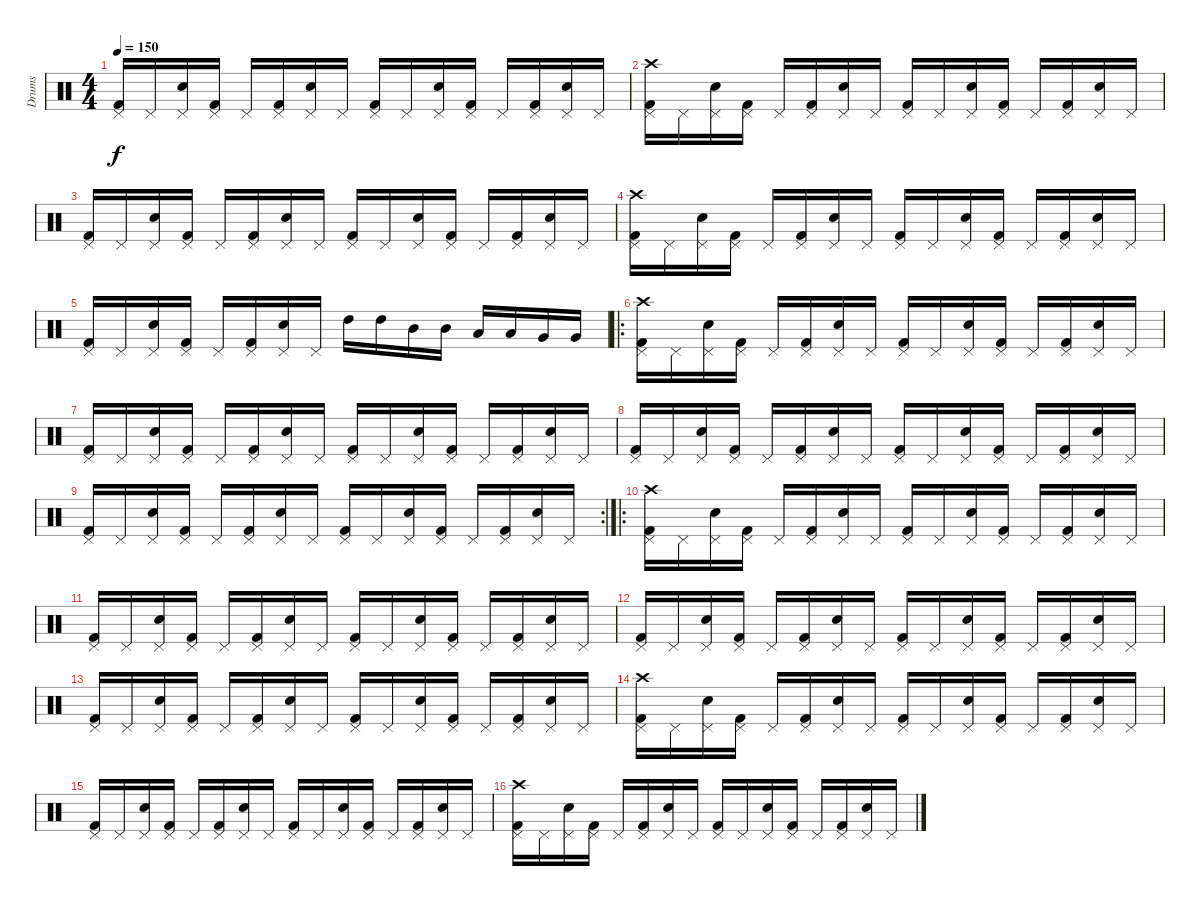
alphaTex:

\track ("Drums" "Drums") {instrument percussion}
\staff {score}
\articulation defaults
\ts (4 4)
\tempo 150
\clef neutral
\ks c
("Kick (hit) 2" "Pedal Hi-Hat (hit)").16{dy f} "Pedal Hi-Hat (hit)".16 ("Snare (hit) 2" "Pedal Hi-Hat (hit)").16 ("Kick (hit) 2" "Pedal Hi-Hat (hit)").16 "Pedal Hi-Hat (hit)".16 ("Kick (hit) 2" "Pedal Hi-Hat (hit)").16 ("Snare (hit) 2" "Pedal Hi-Hat (hit)").16 "Pedal Hi-Hat (hit)".16 ("Kick (hit) 2" "Pedal Hi-Hat (hit)").16 "Pedal Hi-Hat (hit)".16 ("Snare (hit) 2" "Pedal Hi-Hat (hit)").16 ("Kick (hit) 2" "Pedal Hi-Hat (hit)").16 "Pedal Hi-Hat (hit)".16 ("Kick (hit) 2" "Pedal Hi-Hat (hit)").16 ("Snare (hit) 2" "Pedal Hi-Hat (hit)").16 "Pedal Hi-Hat (hit)".16 |
("Kick (hit) 2" "Pedal Hi-Hat (hit)" "Crash high (hit)").16 "Pedal Hi-Hat (hit)".16 ("Snare (hit) 2" "Pedal Hi-Hat (hit)").16 ("Kick (hit) 2" "Pedal Hi-Hat (hit)").16 "Pedal Hi-Hat (hit)".16 ("Kick (hit) 2" "Pedal Hi-Hat (hit)").16 ("Snare (hit) 2" "Pedal Hi-Hat (hit)").16 "Pedal Hi-Hat (hit)".16 ("Kick (hit) 2" "Pedal Hi-Hat (hit)").16 "Pedal Hi-Hat (hit)".16 ("Snare (hit) 2" "Pedal Hi-Hat (hit)").16 ("Kick (hit) 2" "Pedal Hi-Hat (hit)").16 "Pedal Hi-Hat (hit)".16 ("Kick (hit) 2" "Pedal Hi-Hat (hit)").16 ("Snare (hit) 2" "Pedal Hi-Hat (hit)").16 "Pedal Hi-Hat (hit)".16 |
("Kick (hit) 2" "Pedal Hi-Hat (hit)").16 "Pedal Hi-Hat (hit)".16 ("Snare (hit) 2" "Pedal Hi-Hat (hit)").16 ("Kick (hit) 2" "Pedal Hi-Hat (hit)").16 "Pedal Hi-Hat (hit)".16 ("Kick (hit) 2" "Pedal Hi-Hat (hit)").16 ("Snare (hit) 2" "Pedal Hi-Hat (hit)").16 "Pedal Hi-Hat (hit)".16 ("Kick (hit) 2" "Pedal Hi-Hat (hit)").16 "Pedal Hi-Hat (hit)".16 ("Snare (hit) 2" "Pedal Hi-Hat (hit)").16 ("Kick (hit) 2" "Pedal Hi-Hat (hit)").16 "Pedal Hi-Hat (hit)".16 ("Kick (hit) 2" "Pedal Hi-Hat (hit)").16 ("Snare (hit) 2" "Pedal Hi-Hat (hit)").16 "Pedal Hi-Hat (hit)".16 |
("Kick (hit) 2" "Pedal Hi-Hat (hit)" "Crash high (hit)").16 "Pedal Hi-Hat (hit)".16 ("Snare (hit) 2" "Pedal Hi-Hat (hit)").16 ("Kick (hit) 2" "Pedal Hi-Hat (hit)").16 "Pedal Hi-Hat (hit)".16 ("Kick (hit) 2" "Pedal Hi-Hat (hit)").16 ("Snare (hit) 2" "Pedal Hi-Hat (hit)").16 "Pedal Hi-Hat (hit)".16 ("Kick (hit) 2" "Pedal Hi-Hat (hit)").16 "Pedal Hi-Hat (hit)".16 ("Snare (hit) 2" "Pedal Hi-Hat (hit)").16 ("Kick (hit) 2" "Pedal Hi-Hat (hit)").16 "Pedal Hi-Hat (hit)".16 ("Kick (hit) 2" "Pedal Hi-Hat (hit)").16 ("Snare (hit) 2" "Pedal Hi-Hat (hit)").16 "Pedal Hi-Hat (hit)".16 |
("Kick (hit) 2" "Pedal Hi-Hat (hit)").16 "Pedal Hi-Hat (hit)".16 ("Snare (hit) 2" "Pedal Hi-Hat (hit)").16 ("Kick (hit) 2" "Pedal Hi-Hat (hit)").16 "Pedal Hi-Hat (hit)".16 ("Kick (hit) 2" "Pedal Hi-Hat (hit)").16 ("Snare (hit) 2" "Pedal Hi-Hat (hit)").16 "Pedal Hi-Hat (hit)".16 "High Tom (hit)".16 "High Tom (hit)".16 "Mid Tom (hit)".16 "Mid Tom (hit)".16 "Low Tom (hit)".16 "Low Tom (hit)".16 "Very Low Tom (hit)".16 "Very Low Tom (hit)".16 |
\ro
("Kick (hit) 2" "Pedal Hi-Hat (hit)" "Crash high (hit)").16 "Pedal Hi-Hat (hit)".16 ("Snare (hit) 2" "Pedal Hi-Hat (hit)").16 ("Kick (hit) 2" "Pedal Hi-Hat (hit)").16 "Pedal Hi-Hat (hit)".16 ("Kick (hit) 2" "Pedal Hi-Hat (hit)").16 ("Snare (hit) 2" "Pedal Hi-Hat (hit)").16 "Pedal Hi-Hat (hit)".16 ("Kick (hit) 2" "Pedal Hi-Hat (hit)").16 "Pedal Hi-Hat (hit)".16 ("Snare (hit) 2" "Pedal Hi-Hat (hit)").16 ("Kick (hit) 2" "Pedal Hi-Hat (hit)").16 "Pedal Hi-Hat (hit)".16 ("Kick (hit) 2" "Pedal Hi-Hat (hit)").16 ("Snare (hit) 2" "Pedal Hi-Hat (hit)").16 "Pedal Hi-Hat (hit)".16 |
("Kick (hit) 2" "Pedal Hi-Hat (hit)").16 "Pedal Hi-Hat (hit)".16 ("Snare (hit) 2" "Pedal Hi-Hat (hit)").16 ("Kick (hit) 2" "Pedal Hi-Hat (hit)").16 "Pedal Hi-Hat (hit)".16 ("Kick (hit) 2" "Pedal Hi-Hat (hit)").16 ("Snare (hit) 2" "Pedal Hi-Hat (hit)").16 "Pedal Hi-Hat (hit)".16 ("Kick (hit) 2" "Pedal Hi-Hat (hit)").16 "Pedal Hi-Hat (hit)".16 ("Snare (hit) 2" "Pedal Hi-Hat (hit)").16 ("Kick (hit) 2" "Pedal Hi-Hat (hit)").16 "Pedal Hi-Hat (hit)".16 ("Kick (hit) 2" "Pedal Hi-Hat (hit)").16 ("Snare (hit) 2" "Pedal Hi-Hat (hit)").16 "Pedal Hi-Hat (hit)".16 |
("Kick (hit) 2" "Pedal Hi-Hat (hit)").16 "Pedal Hi-Hat (hit)".16 ("Snare (hit) 2" "Pedal Hi-Hat (hit)").16 ("Kick (hit) 2" "Pedal Hi-Hat (hit)").16 "Pedal Hi-Hat (hit)".16 ("Kick (hit) 2" "Pedal Hi-Hat (hit)").16 ("Snare (hit) 2" "Pedal Hi-Hat (hit)").16 "Pedal Hi-Hat (hit)".16 ("Kick (hit) 2" "Pedal Hi-Hat (hit)").16 "Pedal Hi-Hat (hit)".16 ("Snare (hit) 2" "Pedal Hi-Hat (hit)").16 ("Kick (hit) 2" "Pedal Hi-Hat (hit)").16 "Pedal Hi-Hat (hit)".16 ("Kick (hit) 2" "Pedal Hi-Hat (hit)").16 ("Snare (hit) 2" "Pedal Hi-Hat (hit)").16 "Pedal Hi-Hat (hit)".16 |
\rc 2
("Kick (hit) 2" "Pedal Hi-Hat (hit)").16 "Pedal Hi-Hat (hit)".16 ("Snare (hit) 2" "Pedal Hi-Hat (hit)").16 ("Kick (hit) 2" "Pedal Hi-Hat (hit)").16 "Pedal Hi-Hat (hit)".16 ("Kick (hit) 2" "Pedal Hi-Hat (hit)").16 ("Snare (hit) 2" "Pedal Hi-Hat (hit)").16 "Pedal Hi-Hat (hit)".16 ("Kick (hit) 2" "Pedal Hi-Hat (hit)").16 "Pedal Hi-Hat (hit)".16 ("Snare (hit) 2" "Pedal Hi-Hat (hit)").16 ("Kick (hit) 2" "Pedal Hi-Hat (hit)").16 "Pedal Hi-Hat (hit)".16 ("Kick (hit) 2" "Pedal Hi-Hat (hit)").16 ("Snare (hit) 2" "Pedal Hi-Hat (hit)").16 "Pedal Hi-Hat (hit)".16 |
\ro
("Kick (hit) 2" "Pedal Hi-Hat (hit)" "Crash high (hit)").16 "Pedal Hi-Hat (hit)".16 ("Snare (hit) 2" "Pedal Hi-Hat (hit)").16 ("Kick (hit) 2" "Pedal Hi-Hat (hit)").16 "Pedal Hi-Hat (hit)".16 ("Kick (hit) 2" "Pedal Hi-Hat (hit)").16 ("Snare (hit) 2" "Pedal Hi-Hat (hit)").16 "Pedal Hi-Hat (hit)".16 ("Kick (hit) 2" "Pedal Hi-Hat (hit)").16 "Pedal Hi-Hat (hit)".16 ("Snare (hit) 2" "Pedal Hi-Hat (hit)").16 ("Kick (hit) 2" "Pedal Hi-Hat (hit)").16 "Pedal Hi-Hat (hit)".16 ("Kick (hit) 2" "Pedal Hi-Hat (hit)").16 ("Snare (hit) 2" "Pedal Hi-Hat (hit)").16 "Pedal Hi-Hat (hit)".16 |
("Kick (hit) 2" "Pedal Hi-Hat (hit)").16 "Pedal Hi-Hat (hit)".16 ("Snare (hit) 2" "Pedal Hi-Hat (hit)").16 ("Kick (hit) 2" "Pedal Hi-Hat (hit)").16 "Pedal Hi-Hat (hit)".16 ("Kick (hit) 2" "Pedal Hi-Hat (hit)").16 ("Snare (hit) 2" "Pedal Hi-Hat (hit)").16 "Pedal Hi-Hat (hit)".16 ("Kick (hit) 2" "Pedal Hi-Hat (hit)").16 "Pedal Hi-Hat (hit)".16 ("Snare (hit) 2" "Pedal Hi-Hat (hit)").16 ("Kick (hit) 2" "Pedal Hi-Hat (hit)").16 "Pedal Hi-Hat (hit)".16 ("Kick (hit) 2" "Pedal Hi-Hat (hit)").16 ("Snare (hit) 2" "Pedal Hi-Hat (hit)").16 "Pedal Hi-Hat (hit)".16 |
("Kick (hit) 2" "Pedal Hi-Hat (hit)").16 "Pedal Hi-Hat (hit)".16 ("Snare (hit) 2" "Pedal Hi-Hat (hit)").16 ("Kick (hit) 2" "Pedal Hi-Hat (hit)").16 "Pedal Hi-Hat (hit)".16 ("Kick (hit) 2" "Pedal Hi-Hat (hit)").16 ("Snare (hit) 2" "Pedal Hi-Hat (hit)").16 "Pedal Hi-Hat (hit)".16 ("Kick (hit) 2" "Pedal Hi-Hat (hit)").16 "Pedal Hi-Hat (hit)".16 ("Snare (hit) 2" "Pedal Hi-Hat (hit)").16 ("Kick (hit) 2" "Pedal Hi-Hat (hit)").16 "Pedal Hi-Hat (hit)".16 ("Kick (hit) 2" "Pedal Hi-Hat (hit)").16 ("Snare (hit) 2" "Pedal Hi-Hat (hit)").16 "Pedal Hi-Hat (hit)".16 |
("Kick (hit) 2" "Pedal Hi-Hat (hit)").16 "Pedal Hi-Hat (hit)".16 ("Snare (hit) 2" "Pedal Hi-Hat (hit)").16 ("Kick (hit) 2" "Pedal Hi-Hat (hit)").16 "Pedal Hi-Hat (hit)".16 ("Kick (hit) 2" "Pedal Hi-Hat (hit)").16 ("Snare (hit) 2" "Pedal Hi-Hat (hit)").16 "Pedal Hi-Hat (hit)".16 ("Kick (hit) 2" "Pedal Hi-Hat (hit)").16 "Pedal Hi-Hat (hit)".16 ("Snare (hit) 2" "Pedal Hi-Hat (hit)").16 ("Kick (hit) 2" "Pedal Hi-Hat (hit)").16 "Pedal Hi-Hat (hit)".16 ("Kick (hit) 2" "Pedal Hi-Hat (hit)").16 ("Snare (hit) 2" "Pedal Hi-Hat (hit)").16 "Pedal Hi-Hat (hit)".16 |
("Kick (hit) 2" "Pedal Hi-Hat (hit)" "Crash high (hit)").16 "Pedal Hi-Hat (hit)".16 ("Snare (hit) 2" "Pedal Hi-Hat (hit)").16 ("Kick (hit) 2" "Pedal Hi-Hat (hit)").16 "Pedal Hi-Hat (hit)".16 ("Kick (hit) 2" "Pedal Hi-Hat (hit)").16 ("Snare (hit) 2" "Pedal Hi-Hat (hit)").16 "Pedal Hi-Hat (hit)".16 ("Kick (hit) 2" "Pedal Hi-Hat (hit)").16 "Pedal Hi-Hat (hit)".16 ("Snare (hit) 2" "Pedal Hi-Hat (hit)").16 ("Kick (hit) 2" "Pedal Hi-Hat (hit)").16 "Pedal Hi-Hat (hit)".16 ("Kick (hit) 2" "Pedal Hi-Hat (hit)").16 ("Snare (hit) 2" "Pedal Hi-Hat (hit)").16 "Pedal Hi-Hat (hit)".16 |
("Kick (hit) 2" "Pedal Hi-Hat (hit)").16 "Pedal Hi-Hat (hit)".16 ("Snare (hit) 2" "Pedal Hi-Hat (hit)").16 ("Kick (hit) 2" "Pedal Hi-Hat (hit)").16 "Pedal Hi-Hat (hit)".16 ("Kick (hit) 2" "Pedal Hi-Hat (hit)").16 ("Snare (hit) 2" "Pedal Hi-Hat (hit)").16 "Pedal Hi-Hat (hit)".16 ("Kick (hit) 2" "Pedal Hi-Hat (hit)").16 "Pedal Hi-Hat (hit)".16 ("Snare (hit) 2" "Pedal Hi-Hat (hit)").16 ("Kick (hit) 2" "Pedal Hi-Hat (hit)").16 "Pedal Hi-Hat (hit)".16 ("Kick (hit) 2" "Pedal Hi-Hat (hit)").16 ("Snare (hit) 2" "Pedal Hi-Hat (hit)").16 "Pedal Hi-Hat (hit)".16 |
("Kick (hit) 2" "Pedal Hi-Hat (hit)" "Crash high (hit)").16 "Pedal Hi-Hat (hit)".16 ("Snare (hit) 2" "Pedal Hi-Hat (hit)").16 ("Kick (hit) 2" "Pedal Hi-Hat (hit)").16 "Pedal Hi-Hat (hit)".16 ("Kick (hit) 2" "Pedal Hi-Hat (hit)").16 ("Snare (hit) 2" "Pedal Hi-Hat (hit)").16 "Pedal Hi-Hat (hit)".16 ("Kick (hit) 2" "Pedal Hi-Hat (hit)").16 "Pedal Hi-Hat (hit)".16 ("Snare (hit) 2" "Pedal Hi-Hat (hit)").16 ("Kick (hit) 2" "Pedal Hi-Hat (hit)").16 "Pedal Hi-Hat (hit)".16 ("Kick (hit) 2" "Pedal Hi-Hat (hit)").16 ("Snare (hit) 2" "Pedal Hi-Hat (hit)").16 "Pedal Hi-Hat (hit)".16
